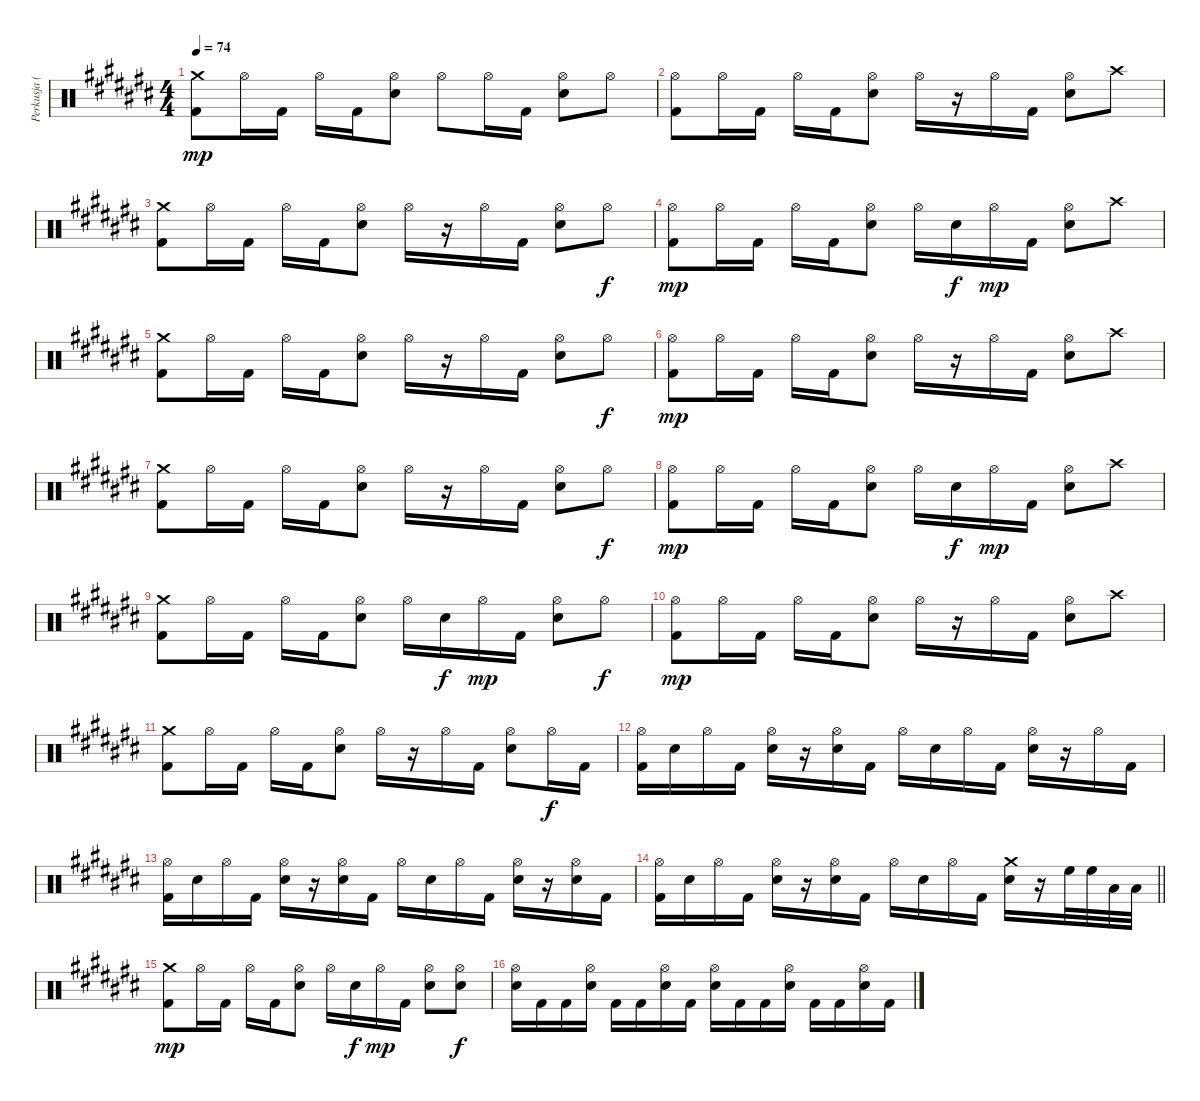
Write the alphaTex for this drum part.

\track ("Perkusja (by FleX)" "Perkusja (") {instrument percussion}
\staff {score}
\articulation defaults
\ts (4 4)
\tempo 74
\clef neutral
\ks a#minor
("Kick (hit) 2" "Crash medium (hit)").8{dy mp} "Hi-Hat (open)".16 "Kick (hit) 2".16 "Hi-Hat (open)".16 "Kick (hit) 2".16 ("Hi-Hat (open)" "Snare (hit) 2").8 "Hi-Hat (open)".8 "Hi-Hat (open)".16 "Kick (hit) 2".16 ("Hi-Hat (open)" "Snare (hit) 2").8 "Hi-Hat (open)".8 |
("Kick (hit) 2" "Hi-Hat (open)").8 "Hi-Hat (open)".16 "Kick (hit) 2".16 "Hi-Hat (open)".16 "Kick (hit) 2".16 ("Hi-Hat (open)" "Snare (hit) 2").8 "Hi-Hat (open)".16 r.16 "Hi-Hat (open)".16 "Kick (hit) 2".16 ("Hi-Hat (open)" "Snare (hit) 2").8 "Crash high (hit)".8 |
("Kick (hit) 2" "Crash medium (hit)").8 "Hi-Hat (open)".16 "Kick (hit) 2".16 "Hi-Hat (open)".16 "Kick (hit) 2".16 ("Hi-Hat (open)" "Snare (hit) 2").8 "Hi-Hat (open)".16 r.16 "Hi-Hat (open)".16 "Kick (hit) 2".16 ("Hi-Hat (open)" "Snare (hit) 2").8 "Hi-Hat (open)".8{dy f} |
("Kick (hit) 2" "Hi-Hat (open)").8{dy mp} "Hi-Hat (open)".16 "Kick (hit) 2".16 "Hi-Hat (open)".16 "Kick (hit) 2".16 ("Hi-Hat (open)" "Snare (hit) 2").8 "Hi-Hat (open)".16 "Snare (hit) 2".16{dy f} "Hi-Hat (open)".16{dy mp} "Kick (hit) 2".16 ("Hi-Hat (open)" "Snare (hit) 2").8 "Crash high (hit)".8 |
("Kick (hit) 2" "Crash medium (hit)").8 "Hi-Hat (open)".16 "Kick (hit) 2".16 "Hi-Hat (open)".16 "Kick (hit) 2".16 ("Hi-Hat (open)" "Snare (hit) 2").8 "Hi-Hat (open)".16 r.16 "Hi-Hat (open)".16 "Kick (hit) 2".16 ("Hi-Hat (open)" "Snare (hit) 2").8 "Hi-Hat (open)".8{dy f} |
("Kick (hit) 2" "Hi-Hat (open)").8{dy mp} "Hi-Hat (open)".16 "Kick (hit) 2".16 "Hi-Hat (open)".16 "Kick (hit) 2".16 ("Hi-Hat (open)" "Snare (hit) 2").8 "Hi-Hat (open)".16 r.16 "Hi-Hat (open)".16 "Kick (hit) 2".16 ("Hi-Hat (open)" "Snare (hit) 2").8 "Crash high (hit)".8 |
("Kick (hit) 2" "Crash medium (hit)").8 "Hi-Hat (open)".16 "Kick (hit) 2".16 "Hi-Hat (open)".16 "Kick (hit) 2".16 ("Hi-Hat (open)" "Snare (hit) 2").8 "Hi-Hat (open)".16 r.16 "Hi-Hat (open)".16 "Kick (hit) 2".16 ("Hi-Hat (open)" "Snare (hit) 2").8 "Hi-Hat (open)".8{dy f} |
("Kick (hit) 2" "Hi-Hat (open)").8{dy mp} "Hi-Hat (open)".16 "Kick (hit) 2".16 "Hi-Hat (open)".16 "Kick (hit) 2".16 ("Hi-Hat (open)" "Snare (hit) 2").8 "Hi-Hat (open)".16 "Snare (hit) 2".16{dy f} "Hi-Hat (open)".16{dy mp} "Kick (hit) 2".16 ("Hi-Hat (open)" "Snare (hit) 2").8 "Crash high (hit)".8 |
("Kick (hit) 2" "Crash medium (hit)").8 "Hi-Hat (open)".16 "Kick (hit) 2".16 "Hi-Hat (open)".16 "Kick (hit) 2".16 ("Hi-Hat (open)" "Snare (hit) 2").8 "Hi-Hat (open)".16 "Snare (hit) 2".16{dy f} "Hi-Hat (open)".16{dy mp} "Kick (hit) 2".16 ("Hi-Hat (open)" "Snare (hit) 2").8 "Hi-Hat (open)".8{dy f} |
("Kick (hit) 2" "Hi-Hat (open)").8{dy mp} "Hi-Hat (open)".16 "Kick (hit) 2".16 "Hi-Hat (open)".16 "Kick (hit) 2".16 ("Hi-Hat (open)" "Snare (hit) 2").8 "Hi-Hat (open)".16 r.16 "Hi-Hat (open)".16 "Kick (hit) 2".16 ("Hi-Hat (open)" "Snare (hit) 2").8 "Crash high (hit)".8 |
("Kick (hit) 2" "Crash medium (hit)").8 "Hi-Hat (open)".16 "Kick (hit) 2".16 "Hi-Hat (open)".16 "Kick (hit) 2".16 ("Hi-Hat (open)" "Snare (hit) 2").8 "Hi-Hat (open)".16 r.16 "Hi-Hat (open)".16 "Kick (hit) 2".16 ("Hi-Hat (open)" "Snare (hit) 2").8 "Hi-Hat (open)".16{dy f} "Kick (hit) 2".16 |
("Hi-Hat (open)" "Kick (hit) 2").16 "Snare (hit) 2".16 "Hi-Hat (open)".16 "Kick (hit) 2".16 ("Hi-Hat (open)" "Snare (hit) 2").16 r.16 ("Hi-Hat (open)" "Snare (hit) 2").16 "Kick (hit) 2".16 "Hi-Hat (open)".16 "Snare (hit) 2".16 "Hi-Hat (open)".16 "Kick (hit) 2".16 ("Hi-Hat (open)" "Snare (hit) 2").16 r.16 "Hi-Hat (open)".16 "Kick (hit) 2".16 |
("Hi-Hat (open)" "Kick (hit) 2").16 "Snare (hit) 2".16 "Hi-Hat (open)".16 "Kick (hit) 2".16 ("Hi-Hat (open)" "Snare (hit) 2").16 r.16 ("Hi-Hat (open)" "Snare (hit) 2").16 "Kick (hit) 2".16 "Hi-Hat (open)".16 "Snare (hit) 2".16 "Hi-Hat (open)".16 "Kick (hit) 2".16 ("Hi-Hat (open)" "Snare (hit) 2").16 r.16 ("Hi-Hat (open)" "Snare (hit) 2").16 "Kick (hit) 2".16 |
\barLineRight lightlight
("Hi-Hat (open)" "Kick (hit) 2").16 "Snare (hit) 2".16 "Hi-Hat (open)".16 "Kick (hit) 2".16 ("Hi-Hat (open)" "Snare (hit) 2").16 r.16 ("Hi-Hat (open)" "Snare (hit) 2").16 "Kick (hit) 2".16 "Hi-Hat (open)".16 "Snare (hit) 2".16 "Hi-Hat (open)".16 "Kick (hit) 2".16 ("Crash medium (hit)" "Snare (hit) 2").16 r.16 "High Floor Tom (hit)".32 "High Floor Tom (hit)".32 "Low Tom (hit)".32 "Low Tom (hit)".32 |
("Kick (hit) 2" "Crash medium (hit)").8{dy mp} "Hi-Hat (open)".16 "Kick (hit) 2".16 "Hi-Hat (open)".16 "Kick (hit) 2".16 ("Hi-Hat (open)" "Snare (hit) 2").8 "Hi-Hat (open)".16 "Snare (hit) 2".16{dy f} "Hi-Hat (open)".16{dy mp} "Kick (hit) 2".16 ("Hi-Hat (open)" "Snare (hit) 2").8 ("Snare (hit) 2" "Hi-Hat (open)").8{dy f} |
("Snare (hit) 2" "Hi-Hat (open)").16 "Kick (hit) 2".16 "Kick (hit) 2".16 ("Snare (hit) 2" "Hi-Hat (open)").16 "Kick (hit) 2".16 "Kick (hit) 2".16 ("Snare (hit) 2" "Hi-Hat (open)").16 "Kick (hit) 2".16 ("Snare (hit) 2" "Hi-Hat (open)").16 "Kick (hit) 2".16 "Kick (hit) 2".16 ("Snare (hit) 2" "Hi-Hat (open)").16 "Kick (hit) 2".16 "Kick (hit) 2".16 ("Hi-Hat (open)" "Snare (hit) 2").16 "Kick (hit) 2".16
